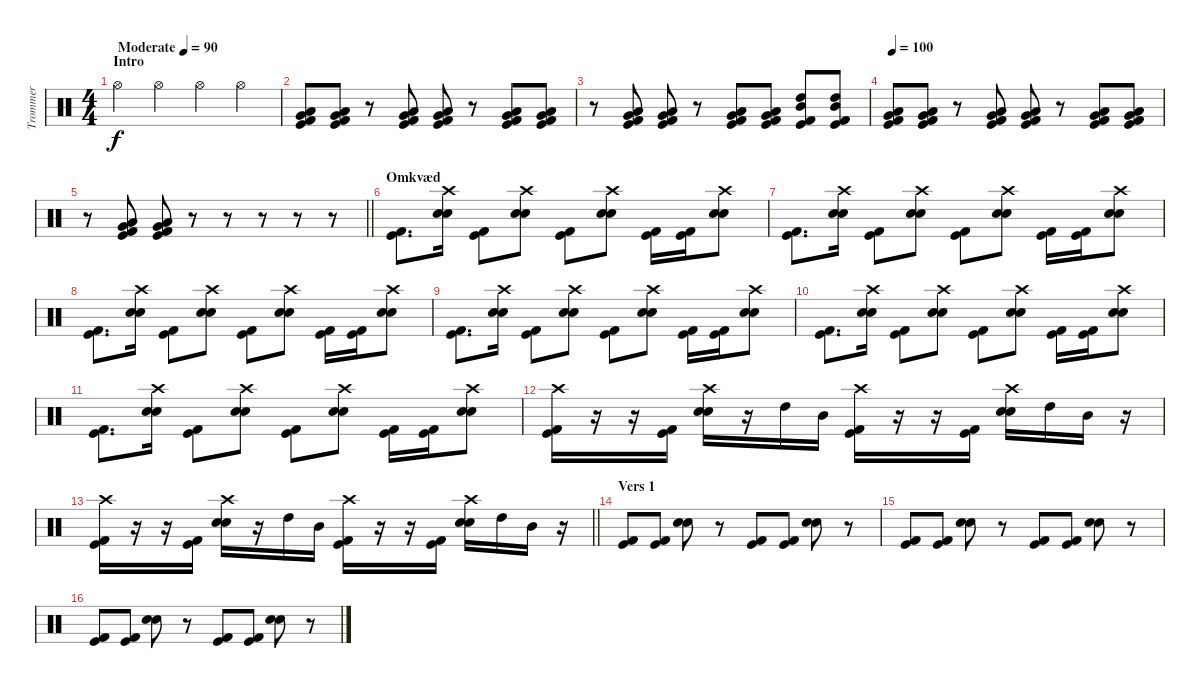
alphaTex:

\track ("Trommer" "Trommer") {instrument percussion}
\staff {score}
\articulation defaults
\ts (4 4)
\section ("" "Intro")
\tempo (90 "Moderate")
\clef neutral
\ks c "Hi-Hat (open)".4{dy f} "Hi-Hat (open)".4 "Hi-Hat (open)".4 "Hi-Hat (open)".4
|
("Kick (hit)" "Kick (hit) 2" "Low Tom (hit)" "Very Low Tom (hit)").8 ("Kick (hit)" "Kick (hit) 2" "Low Tom (hit)" "Very Low Tom (hit)").8 r.8 ("Kick (hit)" "Kick (hit) 2" "Low Tom (hit)" "Very Low Tom (hit)").8 ("Kick (hit)" "Kick (hit) 2" "Low Tom (hit)" "Very Low Tom (hit)").8 r.8 ("Kick (hit)" "Kick (hit) 2" "Low Tom (hit)" "Very Low Tom (hit)").8 ("Kick (hit)" "Kick (hit) 2" "Low Tom (hit)" "Very Low Tom (hit)").8 |
r.8 ("Kick (hit)" "Kick (hit) 2" "Low Tom (hit)" "Very Low Tom (hit)").8 ("Kick (hit)" "Kick (hit) 2" "Low Tom (hit)" "Very Low Tom (hit)").8 r.8 ("Kick (hit)" "Kick (hit) 2" "Low Tom (hit)" "Very Low Tom (hit)").8 ("Kick (hit)" "Kick (hit) 2" "Low Tom (hit)" "Very Low Tom (hit)").8 ("Kick (hit)" "Kick (hit) 2" "High Tom (hit)" "Mid Tom (hit)").8 ("Kick (hit)" "Kick (hit) 2" "High Tom (hit)" "Mid Tom (hit)").8 |
\tempo 100
("Kick (hit)" "Kick (hit) 2" "Low Tom (hit)" "Very Low Tom (hit)").8 ("Kick (hit)" "Kick (hit) 2" "Low Tom (hit)" "Very Low Tom (hit)").8 r.8 ("Kick (hit)" "Kick (hit) 2" "Low Tom (hit)" "Very Low Tom (hit)").8 ("Kick (hit)" "Kick (hit) 2" "Low Tom (hit)" "Very Low Tom (hit)").8 r.8 ("Kick (hit)" "Kick (hit) 2" "Low Tom (hit)" "Very Low Tom (hit)").8 ("Kick (hit)" "Kick (hit) 2" "Low Tom (hit)" "Very Low Tom (hit)").8 |
\barLineRight lightlight
r.8 ("Kick (hit)" "Kick (hit) 2" "Low Tom (hit)" "Very Low Tom (hit)").8 ("Kick (hit)" "Kick (hit) 2" "Low Tom (hit)" "Very Low Tom (hit)").8 r.8 r.8 r.8 r.8 r.8 |
\section ("" "Omkvæd")
("Kick (hit)" "Kick (hit) 2").8{d} ("Crash high (hit)" "Snare (hit) 2" "Electric Snare (hit)").16 ("Kick (hit)" "Kick (hit) 2").8 ("Crash high (hit)" "Snare (hit) 2" "Electric Snare (hit)").8 ("Kick (hit)" "Kick (hit) 2").8 ("Crash high (hit)" "Electric Snare (hit)" "Snare (hit) 2").8 ("Kick (hit)" "Kick (hit) 2").16 ("Kick (hit)" "Kick (hit) 2").16 ("Crash high (hit)" "Snare (hit) 2" "Electric Snare (hit)").8 |
("Kick (hit)" "Kick (hit) 2").8{d} ("Crash high (hit)" "Snare (hit) 2" "Electric Snare (hit)").16 ("Kick (hit)" "Kick (hit) 2").8 ("Crash high (hit)" "Snare (hit) 2" "Electric Snare (hit)").8 ("Kick (hit)" "Kick (hit) 2").8 ("Crash high (hit)" "Electric Snare (hit)" "Snare (hit) 2").8 ("Kick (hit)" "Kick (hit) 2").16 ("Kick (hit)" "Kick (hit) 2").16 ("Crash high (hit)" "Snare (hit) 2" "Electric Snare (hit)").8 |
("Kick (hit)" "Kick (hit) 2").8{d} ("Crash high (hit)" "Snare (hit) 2" "Electric Snare (hit)").16 ("Kick (hit)" "Kick (hit) 2").8 ("Crash high (hit)" "Snare (hit) 2" "Electric Snare (hit)").8 ("Kick (hit)" "Kick (hit) 2").8 ("Crash high (hit)" "Electric Snare (hit)" "Snare (hit) 2").8 ("Kick (hit)" "Kick (hit) 2").16 ("Kick (hit)" "Kick (hit) 2").16 ("Crash high (hit)" "Snare (hit) 2" "Electric Snare (hit)").8 |
("Kick (hit)" "Kick (hit) 2").8{d} ("Crash high (hit)" "Snare (hit) 2" "Electric Snare (hit)").16 ("Kick (hit)" "Kick (hit) 2").8 ("Crash high (hit)" "Snare (hit) 2" "Electric Snare (hit)").8 ("Kick (hit)" "Kick (hit) 2").8 ("Crash high (hit)" "Electric Snare (hit)" "Snare (hit) 2").8 ("Kick (hit)" "Kick (hit) 2").16 ("Kick (hit)" "Kick (hit) 2").16 ("Crash high (hit)" "Snare (hit) 2" "Electric Snare (hit)").8 |
("Kick (hit)" "Kick (hit) 2").8{d} ("Crash high (hit)" "Snare (hit) 2" "Electric Snare (hit)").16 ("Kick (hit)" "Kick (hit) 2").8 ("Crash high (hit)" "Snare (hit) 2" "Electric Snare (hit)").8 ("Kick (hit)" "Kick (hit) 2").8 ("Crash high (hit)" "Electric Snare (hit)" "Snare (hit) 2").8 ("Kick (hit)" "Kick (hit) 2").16 ("Kick (hit)" "Kick (hit) 2").16 ("Crash high (hit)" "Snare (hit) 2" "Electric Snare (hit)").8 |
("Kick (hit)" "Kick (hit) 2").8{d} ("Crash high (hit)" "Snare (hit) 2" "Electric Snare (hit)").16 ("Kick (hit)" "Kick (hit) 2").8 ("Crash high (hit)" "Snare (hit) 2" "Electric Snare (hit)").8 ("Kick (hit)" "Kick (hit) 2").8 ("Crash high (hit)" "Electric Snare (hit)" "Snare (hit) 2").8 ("Kick (hit)" "Kick (hit) 2").16 ("Kick (hit)" "Kick (hit) 2").16 ("Crash high (hit)" "Snare (hit) 2" "Electric Snare (hit)").8 |
("Crash high (hit)" "Kick (hit)" "Kick (hit) 2").16 r.16 r.16 ("Kick (hit)" "Kick (hit) 2").16 ("Crash high (hit)" "Snare (hit) 2" "Electric Snare (hit)").16 r.16 "High Tom (hit)".16 "Mid Tom (hit)".16 ("Crash high (hit)" "Kick (hit)" "Kick (hit) 2").16 r.16 r.16 ("Kick (hit)" "Kick (hit) 2").16 ("Crash high (hit)" "Snare (hit) 2" "Electric Snare (hit)").16 "High Tom (hit)".16 "Mid Tom (hit)".16 r.16 |
\barLineRight lightlight
("Crash high (hit)" "Kick (hit)" "Kick (hit) 2").16 r.16 r.16 ("Kick (hit)" "Kick (hit) 2").16 ("Crash high (hit)" "Snare (hit) 2" "Electric Snare (hit)").16 r.16 "High Tom (hit)".16 "Mid Tom (hit)".16 ("Crash high (hit)" "Kick (hit)" "Kick (hit) 2").16 r.16 r.16 ("Kick (hit)" "Kick (hit) 2").16 ("Crash high (hit)" "Snare (hit) 2" "Electric Snare (hit)").16 "High Tom (hit)".16 "Mid Tom (hit)".16 r.16 |
\section ("" "Vers 1")
("Kick (hit)" "Kick (hit) 2").8 ("Kick (hit)" "Kick (hit) 2").8 ("Snare (hit) 2" "Electric Snare (hit)").8 r.8 ("Kick (hit)" "Kick (hit) 2").8 ("Kick (hit)" "Kick (hit) 2").8 ("Snare (hit) 2" "Electric Snare (hit)").8 r.8 |
("Kick (hit)" "Kick (hit) 2").8 ("Kick (hit)" "Kick (hit) 2").8 ("Snare (hit) 2" "Electric Snare (hit)").8 r.8 ("Kick (hit)" "Kick (hit) 2").8 ("Kick (hit)" "Kick (hit) 2").8 ("Snare (hit) 2" "Electric Snare (hit)").8 r.8 |
("Kick (hit)" "Kick (hit) 2").8 ("Kick (hit)" "Kick (hit) 2").8 ("Snare (hit) 2" "Electric Snare (hit)").8 r.8 ("Kick (hit)" "Kick (hit) 2").8 ("Kick (hit)" "Kick (hit) 2").8 ("Snare (hit) 2" "Electric Snare (hit)").8 r.8
